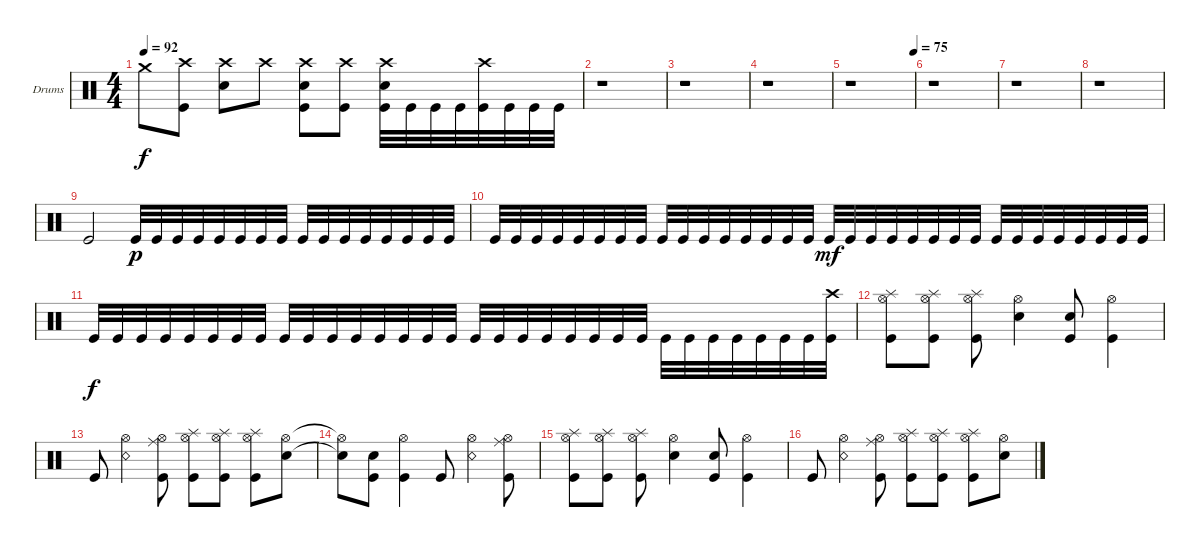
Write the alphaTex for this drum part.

\bracketExtendMode groupsimilarinstruments
\firstSystemTrackNameOrientation horizontal
\otherSystemsTrackNameOrientation horizontal
\track ("Drumkit" "Drums") {instrument percussion}
\staff {score}
\articulation defaults
\ts (4 4)
\tempo 92
\clef neutral
\ks c "Crash medium (hit)".8{dy f}
("Crash high (hit)" "Kick (hit)").8 ("Crash high (hit)" "Snare (hit) 2").8 "Crash high (hit)".8 ("Crash high (hit)" "Snare (hit) 2" "Kick (hit)").8 ("Crash high (hit)" "Kick (hit)").8 ("Crash high (hit)" "Snare (hit) 2" "Kick (hit)").32 "Kick (hit)".32 "Kick (hit)".32 "Kick (hit)".32 ("Crash high (hit)" "Kick (hit)").32 "Kick (hit)".32 "Kick (hit)".32 "Kick (hit)".32 |
r.1 |
r.1 |
r.1 |
\tempo (75 1)
r.1 |
r.1 |
r.1 |
r.1 |
"Kick (hit)".2 "Kick (hit)".32{dy p} "Kick (hit)".32 "Kick (hit)".32 "Kick (hit)".32 "Kick (hit)".32 "Kick (hit)".32 "Kick (hit)".32 "Kick (hit)".32 "Kick (hit)".32 "Kick (hit)".32 "Kick (hit)".32 "Kick (hit)".32 "Kick (hit)".32 "Kick (hit)".32 "Kick (hit)".32 "Kick (hit)".32 |
"Kick (hit)".32 "Kick (hit)".32 "Kick (hit)".32 "Kick (hit)".32 "Kick (hit)".32 "Kick (hit)".32 "Kick (hit)".32 "Kick (hit)".32 "Kick (hit)".32 "Kick (hit)".32 "Kick (hit)".32 "Kick (hit)".32 "Kick (hit)".32 "Kick (hit)".32 "Kick (hit)".32 "Kick (hit)".32 "Kick (hit)".32{dy mf} "Kick (hit)".32 "Kick (hit)".32 "Kick (hit)".32 "Kick (hit)".32 "Kick (hit)".32 "Kick (hit)".32 "Kick (hit)".32 "Kick (hit)".32 "Kick (hit)".32 "Kick (hit)".32 "Kick (hit)".32 "Kick (hit)".32 "Kick (hit)".32 "Kick (hit)".32 "Kick (hit)".32 |
"Kick (hit)".32{dy f} "Kick (hit)".32 "Kick (hit)".32 "Kick (hit)".32 "Kick (hit)".32 "Kick (hit)".32 "Kick (hit)".32 "Kick (hit)".32 "Kick (hit)".32 "Kick (hit)".32 "Kick (hit)".32 "Kick (hit)".32 "Kick (hit)".32 "Kick (hit)".32 "Kick (hit)".32 "Kick (hit)".32 "Kick (hit)".32 "Kick (hit)".32 "Kick (hit)".32 "Kick (hit)".32 "Kick (hit)".32 "Kick (hit)".32 "Kick (hit)".32 "Kick (hit)".32 "Kick (hit)".32 "Kick (hit)".32 "Kick (hit)".32 "Kick (hit)".32 "Kick (hit)".32 "Kick (hit)".32 "Kick (hit)".32 ("Kick (hit)" "Crash high (hit)").32 |
("Kick (hit)" "Hi-Hat (open)" "Splash (hit)").8 ("Kick (hit)" "Hi-Hat (open)" "Splash (hit)").8 ("Kick (hit)" "Hi-Hat (open)" "Splash (hit)").8 ("Snare (hit) 2" "Hi-Hat (open)").4 ("Snare (hit) 2" "Kick (hit)").8 ("Kick (hit)" "Hi-Hat (open)").4 |
"Kick (hit)".8 ("Snare (rim shot)" "Hi-Hat (open)").4 ("Kick (hit)" "Hi-Hat (open)" "Ride (middle)").8 ("Kick (hit)" "Hi-Hat (open)" "Splash (hit)").8 ("Kick (hit)" "Hi-Hat (open)" "Splash (hit)").8 ("Kick (hit)" "Hi-Hat (open)" "Splash (hit)").8 ("Snare (hit) 2" "Hi-Hat (open)").8 |
("Snare (hit) 2"{t} "Hi-Hat (open)"{t}).8 ("Kick (hit)" "Snare (hit) 2").8 ("Kick (hit)" "Hi-Hat (open)").4 "Kick (hit)".8 ("Snare (rim shot)" "Hi-Hat (open)").4 ("Kick (hit)" "Hi-Hat (open)" "Ride (middle)").8 |
("Kick (hit)" "Hi-Hat (open)" "Splash (hit)").8 ("Kick (hit)" "Hi-Hat (open)" "Splash (hit)").8 ("Kick (hit)" "Hi-Hat (open)" "Splash (hit)").8 ("Snare (hit) 2" "Hi-Hat (open)").4 ("Snare (hit) 2" "Kick (hit)").8 ("Kick (hit)" "Hi-Hat (open)").4 |
"Kick (hit)".8 ("Snare (rim shot)" "Hi-Hat (open)").4 ("Kick (hit)" "Hi-Hat (open)" "Ride (middle)").8 ("Kick (hit)" "Hi-Hat (open)" "Splash (hit)").8 ("Kick (hit)" "Hi-Hat (open)" "Splash (hit)").8 ("Kick (hit)" "Hi-Hat (open)" "Splash (hit)").8 ("Snare (hit) 2" "Hi-Hat (open)").8
